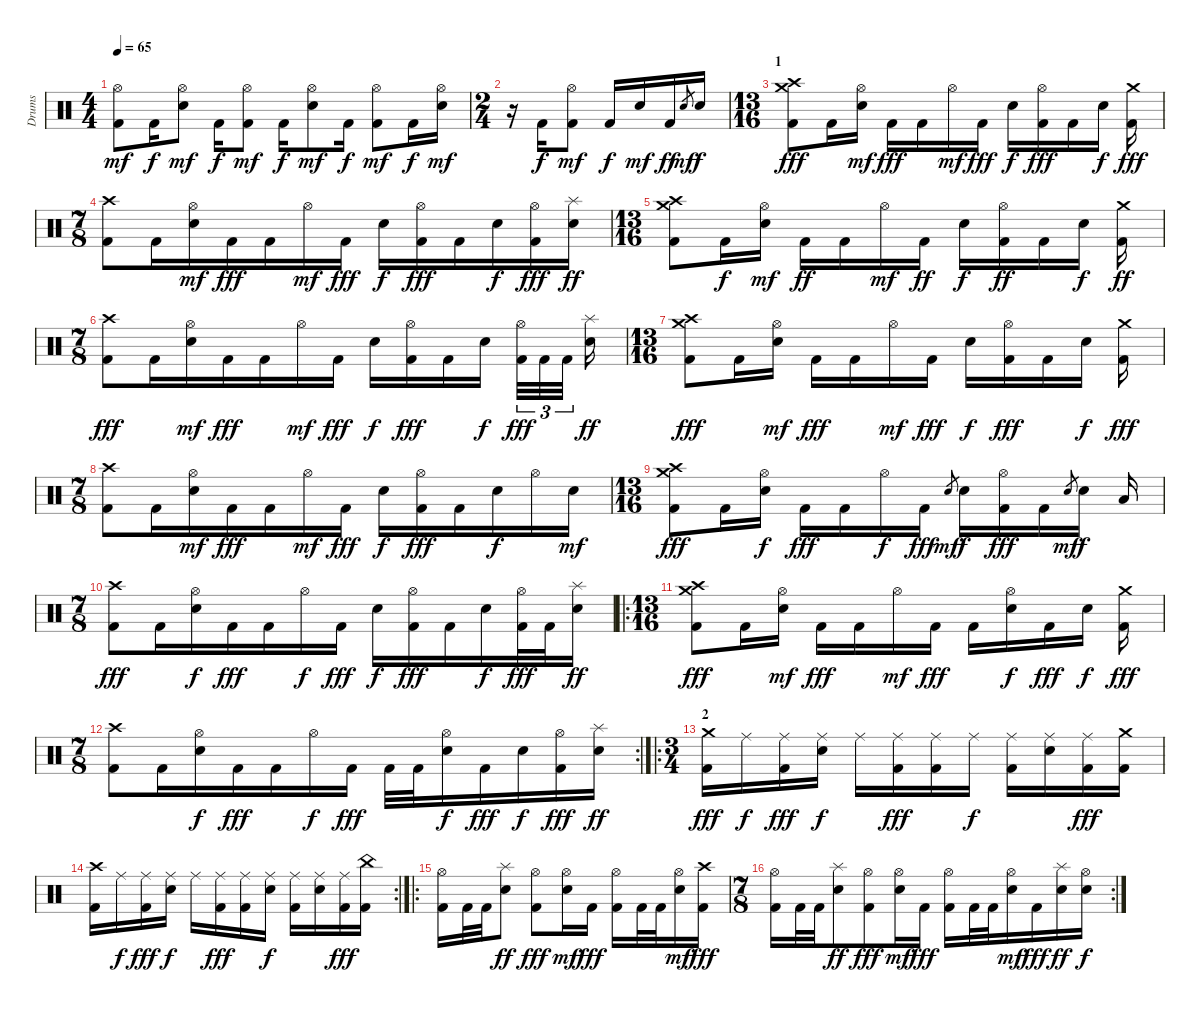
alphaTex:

\track ("Drums" "Drums") {instrument percussion}
\staff {score}
\articulation defaults
\ts (4 4)
\tempo 65
\clef neutral
\ks c
("Hi-Hat (open)" "Kick (hit) 2").8{dy mf} "Kick (hit) 2".16{dy f} ("Hi-Hat (open)" "Electric Snare (hit)").8{dy mf} "Kick (hit) 2".16{dy f} ("Hi-Hat (open)" "Kick (hit) 2").8{dy mf} "Kick (hit) 2".16{dy f} ("Hi-Hat (open)" "Electric Snare (hit)").8{dy mf} "Kick (hit) 2".16{dy f} ("Hi-Hat (open)" "Kick (hit) 2").8{dy mf} "Kick (hit) 2".16{dy f} ("Hi-Hat (open)" "Electric Snare (hit)").16{dy mf} |
\ts (2 4)
r.16 "Kick (hit) 2".16{dy f} ("Hi-Hat (open)" "Kick (hit) 2").8{dy mf} "Kick (hit) 2".16{dy f} "Electric Snare (hit)".16{dy mf} "Kick (hit) 2".16{dy ff} "Electric Snare (hit)".8{gr dy mf} "Electric Snare (hit)".16{dy f} |
\ts (13 16)
\section ("" "1")
("Crash medium (hit)" "Crash high (hit)" "Kick (hit) 2").8{dy fff} "Kick (hit) 2".16 ("Hi-Hat (open)" "Electric Snare (hit)").16{dy mf} "Kick (hit) 2".16{dy fff} "Kick (hit) 2".16 "Hi-Hat (open)".16{dy mf} "Kick (hit) 2".16{dy fff} "Electric Snare (hit)".16{dy f} ("Hi-Hat (open)" "Kick (hit) 2").16{dy fff} "Kick (hit) 2".16 "Electric Snare (hit)".16{dy f} ("Crash medium (hit)" "Kick (hit) 2").16{dy fff} |
\ts (7 8)
("Crash high (hit)" "Kick (hit) 2").8 "Kick (hit) 2".16 ("Hi-Hat (open)" "Electric Snare (hit)").16{dy mf} "Kick (hit) 2".16{dy fff} "Kick (hit) 2".16 "Hi-Hat (open)".16{dy mf} "Kick (hit) 2".16{dy fff} "Electric Snare (hit)".16{dy f} ("Hi-Hat (open)" "Kick (hit) 2").16{dy fff} "Kick (hit) 2".16 "Electric Snare (hit)".16{dy f} ("Hi-Hat (open)" "Kick (hit) 2").16{dy fff} ("Splash (hit)" "Electric Snare (hit)").16{dy ff} |
\ts (13 16)
("Crash medium (hit)" "Crash high (hit)" "Kick (hit) 2").8 "Kick (hit) 2".16{dy f} ("Hi-Hat (open)" "Electric Snare (hit)").16{dy mf} "Kick (hit) 2".16{dy ff} "Kick (hit) 2".16 "Hi-Hat (open)".16{dy mf} "Kick (hit) 2".16{dy ff} "Electric Snare (hit)".16{dy f} ("Hi-Hat (open)" "Kick (hit) 2").16{dy ff} "Kick (hit) 2".16 "Electric Snare (hit)".16{dy f} ("Crash medium (hit)" "Kick (hit) 2").16{dy ff} |
\ts (7 8)
("Crash high (hit)" "Kick (hit) 2").8{dy fff} "Kick (hit) 2".16 ("Hi-Hat (open)" "Electric Snare (hit)").16{dy mf} "Kick (hit) 2".16{dy fff} "Kick (hit) 2".16 "Hi-Hat (open)".16{dy mf} "Kick (hit) 2".16{dy fff} "Electric Snare (hit)".16{dy f} ("Hi-Hat (open)" "Kick (hit) 2").16{dy fff} "Kick (hit) 2".16 "Electric Snare (hit)".16{dy f} ("Hi-Hat (open)" "Kick (hit) 2").32{tu (3 2) dy fff} "Kick (hit) 2".32{tu (3 2)} "Kick (hit) 2".32{tu (3 2)} ("Splash (hit)" "Electric Snare (hit)").16{dy ff} |
\ts (13 16)
("Crash medium (hit)" "Crash high (hit)" "Kick (hit) 2").8{dy fff} "Kick (hit) 2".16 ("Hi-Hat (open)" "Electric Snare (hit)").16{dy mf} "Kick (hit) 2".16{dy fff} "Kick (hit) 2".16 "Hi-Hat (open)".16{dy mf} "Kick (hit) 2".16{dy fff} "Electric Snare (hit)".16{dy f} ("Hi-Hat (open)" "Kick (hit) 2").16{dy fff} "Kick (hit) 2".16 "Electric Snare (hit)".16{dy f} ("Crash medium (hit)" "Kick (hit) 2").16{dy fff} |
\ts (7 8)
("Crash high (hit)" "Kick (hit) 2").8 "Kick (hit) 2".16 ("Hi-Hat (open)" "Electric Snare (hit)").16{dy mf} "Kick (hit) 2".16{dy fff} "Kick (hit) 2".16 "Hi-Hat (open)".16{dy mf} "Kick (hit) 2".16{dy fff} "Electric Snare (hit)".16{dy f} ("Hi-Hat (open)" "Kick (hit) 2").16{dy fff} "Kick (hit) 2".16 "Electric Snare (hit)".16{dy f} "Hi-Hat (open)".16 "Electric Snare (hit)".16{dy mf} |
\ts (13 16)
("Crash medium (hit)" "Crash high (hit)" "Kick (hit) 2").8{dy fff} "Kick (hit) 2".16 ("Hi-Hat (open)" "Electric Snare (hit)").16{dy f} "Kick (hit) 2".16{dy fff} "Kick (hit) 2".16 "Hi-Hat (open)".16{dy f} "Kick (hit) 2".16{dy fff} "Electric Snare (hit)".8{gr dy mf} "Electric Snare (hit)".16{dy f} ("Hi-Hat (open)" "Kick (hit) 2").16{dy fff} "Kick (hit) 2".16 "Electric Snare (hit)".8{gr dy mf} "Electric Snare (hit)".16{dy f} "Low Tom (hit)".16 |
\ts (7 8)
("Crash high (hit)" "Kick (hit) 2").8{dy fff} "Kick (hit) 2".16 ("Hi-Hat (open)" "Electric Snare (hit)").16{dy f} "Kick (hit) 2".16{dy fff} "Kick (hit) 2".16 "Hi-Hat (open)".16{dy f} "Kick (hit) 2".16{dy fff} "Electric Snare (hit)".16{dy f} ("Hi-Hat (open)" "Kick (hit) 2").16{dy fff} "Kick (hit) 2".16 "Electric Snare (hit)".16{dy f} ("Hi-Hat (open)" "Kick (hit) 2").32{dy fff} "Kick (hit) 2".32 ("Splash (hit)" "Electric Snare (hit)").16{dy ff} |
\ro
\ts (13 16)
("Crash medium (hit)" "Crash high (hit)" "Kick (hit) 2").8{dy fff} "Kick (hit) 2".16 ("Hi-Hat (open)" "Electric Snare (hit)").16{dy mf} "Kick (hit) 2".16{dy fff} "Kick (hit) 2".16 "Hi-Hat (open)".16{dy mf} "Kick (hit) 2".16{dy fff} "Kick (hit) 2".16 ("Hi-Hat (open)" "Electric Snare (hit)").16{dy f} "Kick (hit) 2".16{dy fff} "Electric Snare (hit)".16{dy f} ("Crash medium (hit)" "Kick (hit) 2").16{dy fff} |
\rc 2
\ts (7 8)
("Crash high (hit)" "Kick (hit) 2").8 "Kick (hit) 2".16 ("Hi-Hat (open)" "Electric Snare (hit)").16{dy f} "Kick (hit) 2".16{dy fff} "Kick (hit) 2".16 "Hi-Hat (open)".16{dy f} "Kick (hit) 2".16{dy fff} "Kick (hit) 2".32 "Kick (hit) 2".32 ("Hi-Hat (open)" "Electric Snare (hit)").16{dy f} "Kick (hit) 2".16{dy fff} "Electric Snare (hit)".16{dy f} ("Hi-Hat (open)" "Kick (hit) 2").16{dy fff} ("Splash (hit)" "Electric Snare (hit)").16{dy ff} |
\ro
\ts (3 4)
\section ("" "2")
("Crash medium (hit)" "Kick (hit) 2").16{dy fff} "Ride (middle)".16{dy f} ("Ride (middle)" "Kick (hit) 2").16{dy fff} ("Ride (middle)" "Electric Snare (hit)").16{dy f} "Ride (middle)".16 ("Ride (middle)" "Kick (hit) 2").16{dy fff} ("Ride (middle)" "Kick (hit) 2").16 "Ride (middle)".16{dy f} ("Ride (middle)" "Kick (hit) 2").16 ("Ride (middle)" "Electric Snare (hit)").16 ("Ride (middle)" "Kick (hit) 2").16{dy fff} ("Crash medium (hit)" "Kick (hit) 2").16 |
\rc 2
("Crash high (hit)" "Kick (hit) 2").16 "Ride (middle)".16{dy f} ("Ride (middle)" "Kick (hit) 2").16{dy fff} ("Ride (middle)" "Electric Snare (hit)").16{dy f} "Ride (middle)".16 ("Ride (middle)" "Kick (hit) 2").16{dy fff} ("Ride (middle)" "Kick (hit) 2").16 ("Ride (middle)" "Electric Snare (hit)").16{dy f} ("Ride (middle)" "Kick (hit) 2").16 ("Ride (middle)" "Electric Snare (hit)").16 ("Ride (middle)" "Kick (hit) 2").16{dy fff} ("China (hit)" "Kick (hit) 2").16 |
\ro
("Hi-Hat (open)" "Kick (hit) 2").16 "Kick (hit) 2".32 "Kick (hit) 2".32 ("Splash (hit)" "Electric Snare (hit)").8{dy ff} ("Hi-Hat (open)" "Kick (hit) 2").8{dy fff} ("Hi-Hat (open)" "Electric Snare (hit)").16{dy mf} "Kick (hit) 2".16{dy fff} ("Hi-Hat (open)" "Kick (hit) 2").16 "Kick (hit) 2".32 "Kick (hit) 2".32 ("Hi-Hat (open)" "Electric Snare (hit)").16{dy mf} ("Crash high (hit)" "Kick (hit) 2").16{dy fff} |
\rc 2
\ts (7 8)
("Hi-Hat (open)" "Kick (hit) 2").16 "Kick (hit) 2".32 "Kick (hit) 2".32 ("Splash (hit)" "Electric Snare (hit)").8{dy ff} ("Hi-Hat (open)" "Kick (hit) 2").8{dy fff} ("Hi-Hat (open)" "Electric Snare (hit)").16{dy mf} "Kick (hit) 2".16{dy fff} ("Hi-Hat (open)" "Kick (hit) 2").16 "Kick (hit) 2".32 "Kick (hit) 2".32 ("Hi-Hat (open)" "Electric Snare (hit)").16{dy mf} "Kick (hit) 2".16{dy fff} ("Splash (hit)" "Electric Snare (hit)").16{dy ff} ("Hi-Hat (open)" "Electric Snare (hit)").16{dy f}
